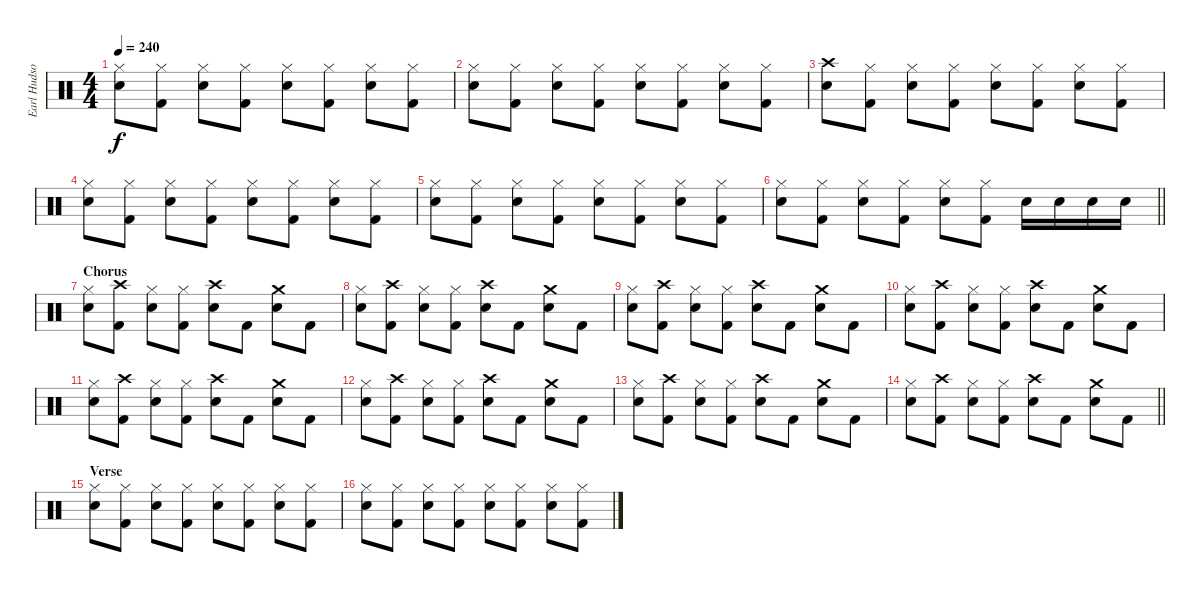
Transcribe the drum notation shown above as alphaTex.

\track ("Earl Hudson" "Earl Hudso") {instrument percussion}
\staff {score}
\articulation defaults
\ts (4 4)
\tempo 240
\clef neutral
\ks c
("Hi-Hat (closed)" "Snare (hit) 2").8{dy f} ("Hi-Hat (closed)" "Kick (hit) 2").8 ("Hi-Hat (closed)" "Snare (hit) 2").8 ("Hi-Hat (closed)" "Kick (hit) 2").8 ("Hi-Hat (closed)" "Snare (hit) 2").8 ("Hi-Hat (closed)" "Kick (hit) 2").8 ("Hi-Hat (closed)" "Snare (hit) 2").8 ("Hi-Hat (closed)" "Kick (hit) 2").8 |
("Hi-Hat (closed)" "Snare (hit) 2").8 ("Hi-Hat (closed)" "Kick (hit) 2").8 ("Hi-Hat (closed)" "Snare (hit) 2").8 ("Hi-Hat (closed)" "Kick (hit) 2").8 ("Hi-Hat (closed)" "Snare (hit) 2").8 ("Hi-Hat (closed)" "Kick (hit) 2").8 ("Hi-Hat (closed)" "Snare (hit) 2").8 ("Hi-Hat (closed)" "Kick (hit) 2").8 |
("Crash high (hit)" "Snare (hit) 2").8 ("Hi-Hat (closed)" "Kick (hit) 2").8 ("Hi-Hat (closed)" "Snare (hit) 2").8 ("Hi-Hat (closed)" "Kick (hit) 2").8 ("Hi-Hat (closed)" "Snare (hit) 2").8 ("Hi-Hat (closed)" "Kick (hit) 2").8 ("Hi-Hat (closed)" "Snare (hit) 2").8 ("Hi-Hat (closed)" "Kick (hit) 2").8 |
("Hi-Hat (closed)" "Snare (hit) 2").8 ("Hi-Hat (closed)" "Kick (hit) 2").8 ("Hi-Hat (closed)" "Snare (hit) 2").8 ("Hi-Hat (closed)" "Kick (hit) 2").8 ("Hi-Hat (closed)" "Snare (hit) 2").8 ("Hi-Hat (closed)" "Kick (hit) 2").8 ("Hi-Hat (closed)" "Snare (hit) 2").8 ("Hi-Hat (closed)" "Kick (hit) 2").8 |
("Hi-Hat (closed)" "Snare (hit) 2").8 ("Hi-Hat (closed)" "Kick (hit) 2").8 ("Hi-Hat (closed)" "Snare (hit) 2").8 ("Hi-Hat (closed)" "Kick (hit) 2").8 ("Hi-Hat (closed)" "Snare (hit) 2").8 ("Hi-Hat (closed)" "Kick (hit) 2").8 ("Hi-Hat (closed)" "Snare (hit) 2").8 ("Hi-Hat (closed)" "Kick (hit) 2").8 |
\barLineRight lightlight
("Hi-Hat (closed)" "Snare (hit) 2").8 ("Hi-Hat (closed)" "Kick (hit) 2").8 ("Hi-Hat (closed)" "Snare (hit) 2").8 ("Hi-Hat (closed)" "Kick (hit) 2").8 ("Hi-Hat (closed)" "Snare (hit) 2").8 ("Hi-Hat (closed)" "Kick (hit) 2").8 "Snare (hit) 2".16 "Snare (hit) 2".16 "Snare (hit) 2".16 "Snare (hit) 2".16 |
\section ("" "Chorus")
("Hi-Hat (closed)" "Snare (hit) 2").8 ("Crash high (hit)" "Kick (hit) 2").8 ("Hi-Hat (closed)" "Snare (hit) 2").8 ("Hi-Hat (closed)" "Kick (hit) 2").8 ("Crash high (hit)" "Snare (hit) 2").8 "Kick (hit) 2".8 ("Crash medium (hit)" "Snare (hit) 2").8 "Kick (hit) 2".8 |
("Hi-Hat (closed)" "Snare (hit) 2").8 ("Crash high (hit)" "Kick (hit) 2").8 ("Hi-Hat (closed)" "Snare (hit) 2").8 ("Hi-Hat (closed)" "Kick (hit) 2").8 ("Crash high (hit)" "Snare (hit) 2").8 "Kick (hit) 2".8 ("Crash medium (hit)" "Snare (hit) 2").8 "Kick (hit) 2".8 |
("Hi-Hat (closed)" "Snare (hit) 2").8 ("Crash high (hit)" "Kick (hit) 2").8 ("Hi-Hat (closed)" "Snare (hit) 2").8 ("Hi-Hat (closed)" "Kick (hit) 2").8 ("Crash high (hit)" "Snare (hit) 2").8 "Kick (hit) 2".8 ("Crash medium (hit)" "Snare (hit) 2").8 "Kick (hit) 2".8 |
("Hi-Hat (closed)" "Snare (hit) 2").8 ("Crash high (hit)" "Kick (hit) 2").8 ("Hi-Hat (closed)" "Snare (hit) 2").8 ("Hi-Hat (closed)" "Kick (hit) 2").8 ("Crash high (hit)" "Snare (hit) 2").8 "Kick (hit) 2".8 ("Crash medium (hit)" "Snare (hit) 2").8 "Kick (hit) 2".8 |
("Hi-Hat (closed)" "Snare (hit) 2").8 ("Crash high (hit)" "Kick (hit) 2").8 ("Hi-Hat (closed)" "Snare (hit) 2").8 ("Hi-Hat (closed)" "Kick (hit) 2").8 ("Crash high (hit)" "Snare (hit) 2").8 "Kick (hit) 2".8 ("Crash medium (hit)" "Snare (hit) 2").8 "Kick (hit) 2".8 |
("Hi-Hat (closed)" "Snare (hit) 2").8 ("Crash high (hit)" "Kick (hit) 2").8 ("Hi-Hat (closed)" "Snare (hit) 2").8 ("Hi-Hat (closed)" "Kick (hit) 2").8 ("Crash high (hit)" "Snare (hit) 2").8 "Kick (hit) 2".8 ("Crash medium (hit)" "Snare (hit) 2").8 "Kick (hit) 2".8 |
("Hi-Hat (closed)" "Snare (hit) 2").8 ("Crash high (hit)" "Kick (hit) 2").8 ("Hi-Hat (closed)" "Snare (hit) 2").8 ("Hi-Hat (closed)" "Kick (hit) 2").8 ("Crash high (hit)" "Snare (hit) 2").8 "Kick (hit) 2".8 ("Crash medium (hit)" "Snare (hit) 2").8 "Kick (hit) 2".8 |
\barLineRight lightlight
("Hi-Hat (closed)" "Snare (hit) 2").8 ("Crash high (hit)" "Kick (hit) 2").8 ("Hi-Hat (closed)" "Snare (hit) 2").8 ("Hi-Hat (closed)" "Kick (hit) 2").8 ("Crash high (hit)" "Snare (hit) 2").8 "Kick (hit) 2".8 ("Crash medium (hit)" "Snare (hit) 2").8 "Kick (hit) 2".8 |
\section ("" "Verse")
("Hi-Hat (closed)" "Snare (hit) 2").8 ("Hi-Hat (closed)" "Kick (hit) 2").8 ("Hi-Hat (closed)" "Snare (hit) 2").8 ("Hi-Hat (closed)" "Kick (hit) 2").8 ("Hi-Hat (closed)" "Snare (hit) 2").8 ("Hi-Hat (closed)" "Kick (hit) 2").8 ("Hi-Hat (closed)" "Snare (hit) 2").8 ("Hi-Hat (closed)" "Kick (hit) 2").8 |
("Hi-Hat (closed)" "Snare (hit) 2").8 ("Hi-Hat (closed)" "Kick (hit) 2").8 ("Hi-Hat (closed)" "Snare (hit) 2").8 ("Hi-Hat (closed)" "Kick (hit) 2").8 ("Hi-Hat (closed)" "Snare (hit) 2").8 ("Hi-Hat (closed)" "Kick (hit) 2").8 ("Hi-Hat (closed)" "Snare (hit) 2").8 ("Hi-Hat (closed)" "Kick (hit) 2").8
